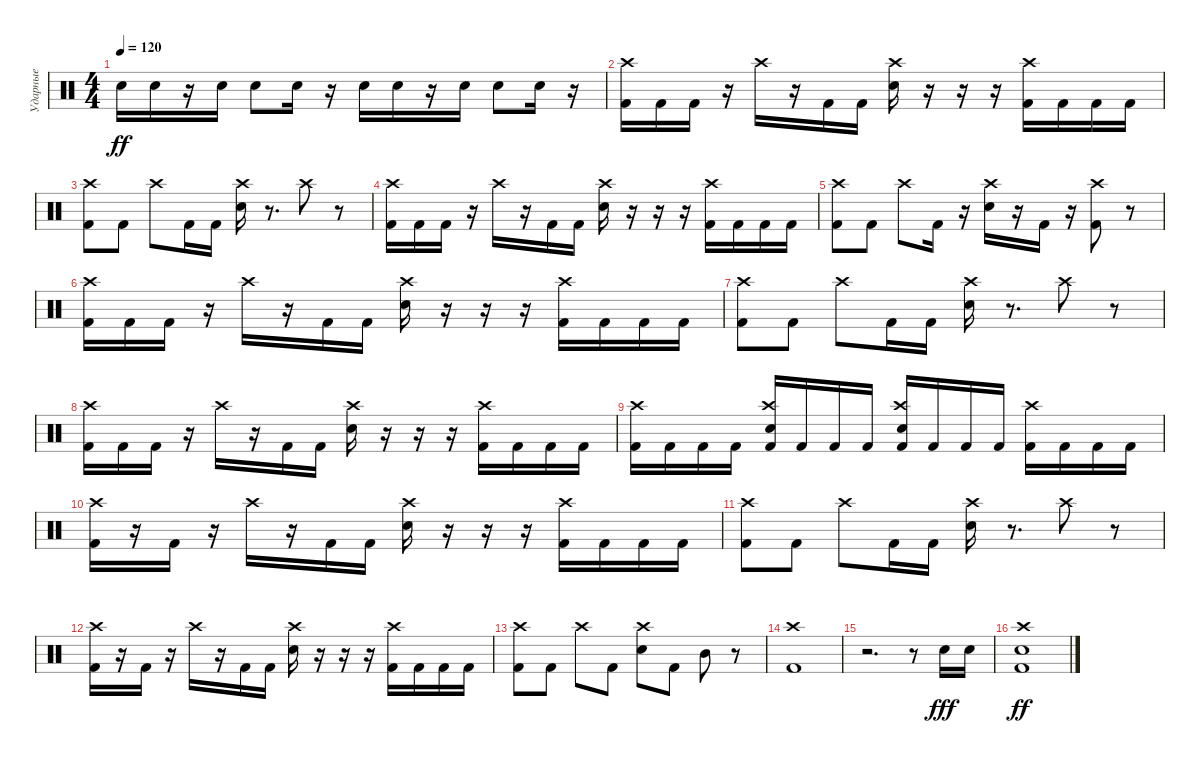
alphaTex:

\track ("Ударные" "Ударные") {instrument percussion}
\staff {score}
\articulation defaults
\ts (4 4)
\tempo 120
\clef neutral
\ks c "Electric Snare (hit)".16{dy ff} "Electric Snare (hit)".16
r.16 "Electric Snare (hit)".16 "Electric Snare (hit)".8 "Electric Snare (hit)".16 r.16 "Electric Snare (hit)".16 "Electric Snare (hit)".16 r.16 "Electric Snare (hit)".16 "Electric Snare (hit)".8 "Electric Snare (hit)".16 r.16 |
("Crash high (hit)" "Kick (hit) 2").16 "Kick (hit) 2".16 "Kick (hit) 2".16 r.16 "Crash high (hit)".16 r.16 "Kick (hit) 2".16 "Kick (hit) 2".16 ("Crash high (hit)" "Electric Snare (hit)").16 r.16 r.16 r.16 ("Crash high (hit)" "Kick (hit) 2").16 "Kick (hit) 2".16 "Kick (hit) 2".16 "Kick (hit) 2".16 |
("Crash high (hit)" "Kick (hit) 2").8 "Kick (hit) 2".8 "Crash high (hit)".8 "Kick (hit) 2".16 "Kick (hit) 2".16 ("Crash high (hit)" "Electric Snare (hit)").16 r.8{d} "Crash high (hit)".8 r.8 |
("Crash high (hit)" "Kick (hit) 2").16 "Kick (hit) 2".16 "Kick (hit) 2".16 r.16 "Crash high (hit)".16 r.16 "Kick (hit) 2".16 "Kick (hit) 2".16 ("Crash high (hit)" "Electric Snare (hit)").16 r.16 r.16 r.16 ("Crash high (hit)" "Kick (hit) 2").16 "Kick (hit) 2".16 "Kick (hit) 2".16 "Kick (hit) 2".16 |
("Crash high (hit)" "Kick (hit) 2").8 "Kick (hit) 2".8 "Crash high (hit)".8 "Kick (hit) 2".16 r.16 ("Crash high (hit)" "Electric Snare (hit)").16 r.16 "Kick (hit) 2".16 r.16 ("Crash high (hit)" "Kick (hit) 2").8 r.8 |
("Crash high (hit)" "Kick (hit) 2").16 "Kick (hit) 2".16 "Kick (hit) 2".16 r.16 "Crash high (hit)".16 r.16 "Kick (hit) 2".16 "Kick (hit) 2".16 ("Crash high (hit)" "Electric Snare (hit)").16 r.16 r.16 r.16 ("Crash high (hit)" "Kick (hit) 2").16 "Kick (hit) 2".16 "Kick (hit) 2".16 "Kick (hit) 2".16 |
("Crash high (hit)" "Kick (hit) 2").8 "Kick (hit) 2".8 "Crash high (hit)".8 "Kick (hit) 2".16 "Kick (hit) 2".16 ("Crash high (hit)" "Electric Snare (hit)").16 r.8{d} "Crash high (hit)".8 r.8 |
("Crash high (hit)" "Kick (hit) 2").16 "Kick (hit) 2".16 "Kick (hit) 2".16 r.16 "Crash high (hit)".16 r.16 "Kick (hit) 2".16 "Kick (hit) 2".16 ("Crash high (hit)" "Electric Snare (hit)").16 r.16 r.16 r.16 ("Crash high (hit)" "Kick (hit) 2").16 "Kick (hit) 2".16 "Kick (hit) 2".16 "Kick (hit) 2".16 |
("Crash high (hit)" "Kick (hit) 2").16 "Kick (hit) 2".16 "Kick (hit) 2".16 "Kick (hit) 2".16 ("Crash high (hit)" "Kick (hit) 2" "Electric Snare (hit)").16 "Kick (hit) 2".16 "Kick (hit) 2".16 "Kick (hit) 2".16 ("Crash high (hit)" "Kick (hit) 2" "Electric Snare (hit)").16 "Kick (hit) 2".16 "Kick (hit) 2".16 "Kick (hit) 2".16 ("Crash high (hit)" "Kick (hit) 2").16 "Kick (hit) 2".16 "Kick (hit) 2".16 "Kick (hit) 2".16 |
("Crash high (hit)" "Kick (hit) 2").16 r.16 "Kick (hit) 2".16 r.16 "Crash high (hit)".16 r.16 "Kick (hit) 2".16 "Kick (hit) 2".16 ("Crash high (hit)" "Electric Snare (hit)").16 r.16 r.16 r.16 ("Crash high (hit)" "Kick (hit) 2").16 "Kick (hit) 2".16 "Kick (hit) 2".16 "Kick (hit) 2".16 |
("Crash high (hit)" "Kick (hit) 2").8 "Kick (hit) 2".8 "Crash high (hit)".8 "Kick (hit) 2".16 "Kick (hit) 2".16 ("Crash high (hit)" "Electric Snare (hit)").16 r.8{d} "Crash high (hit)".8 r.8 |
("Crash high (hit)" "Kick (hit) 2").16 r.16 "Kick (hit) 2".16 r.16 "Crash high (hit)".16 r.16 "Kick (hit) 2".16 "Kick (hit) 2".16 ("Crash high (hit)" "Electric Snare (hit)").16 r.16 r.16 r.16 ("Crash high (hit)" "Kick (hit) 2").16 "Kick (hit) 2".16 "Kick (hit) 2".16 "Kick (hit) 2".16 |
("Crash high (hit)" "Kick (hit) 2").8 "Kick (hit) 2".8 "Crash high (hit)".8 "Kick (hit) 2".8 ("Crash high (hit)" "Electric Snare (hit)").8 "Kick (hit) 2".8 "Mid Tom (hit)".8 r.8 |
("Crash high (hit)" "Kick (hit) 2").1 |
r.2{d} r.8 "Electric Snare (hit)".16{dy fff} "Electric Snare (hit)".16 |
("Crash high (hit)" "Electric Snare (hit)" "Kick (hit) 2").1{dy ff}
